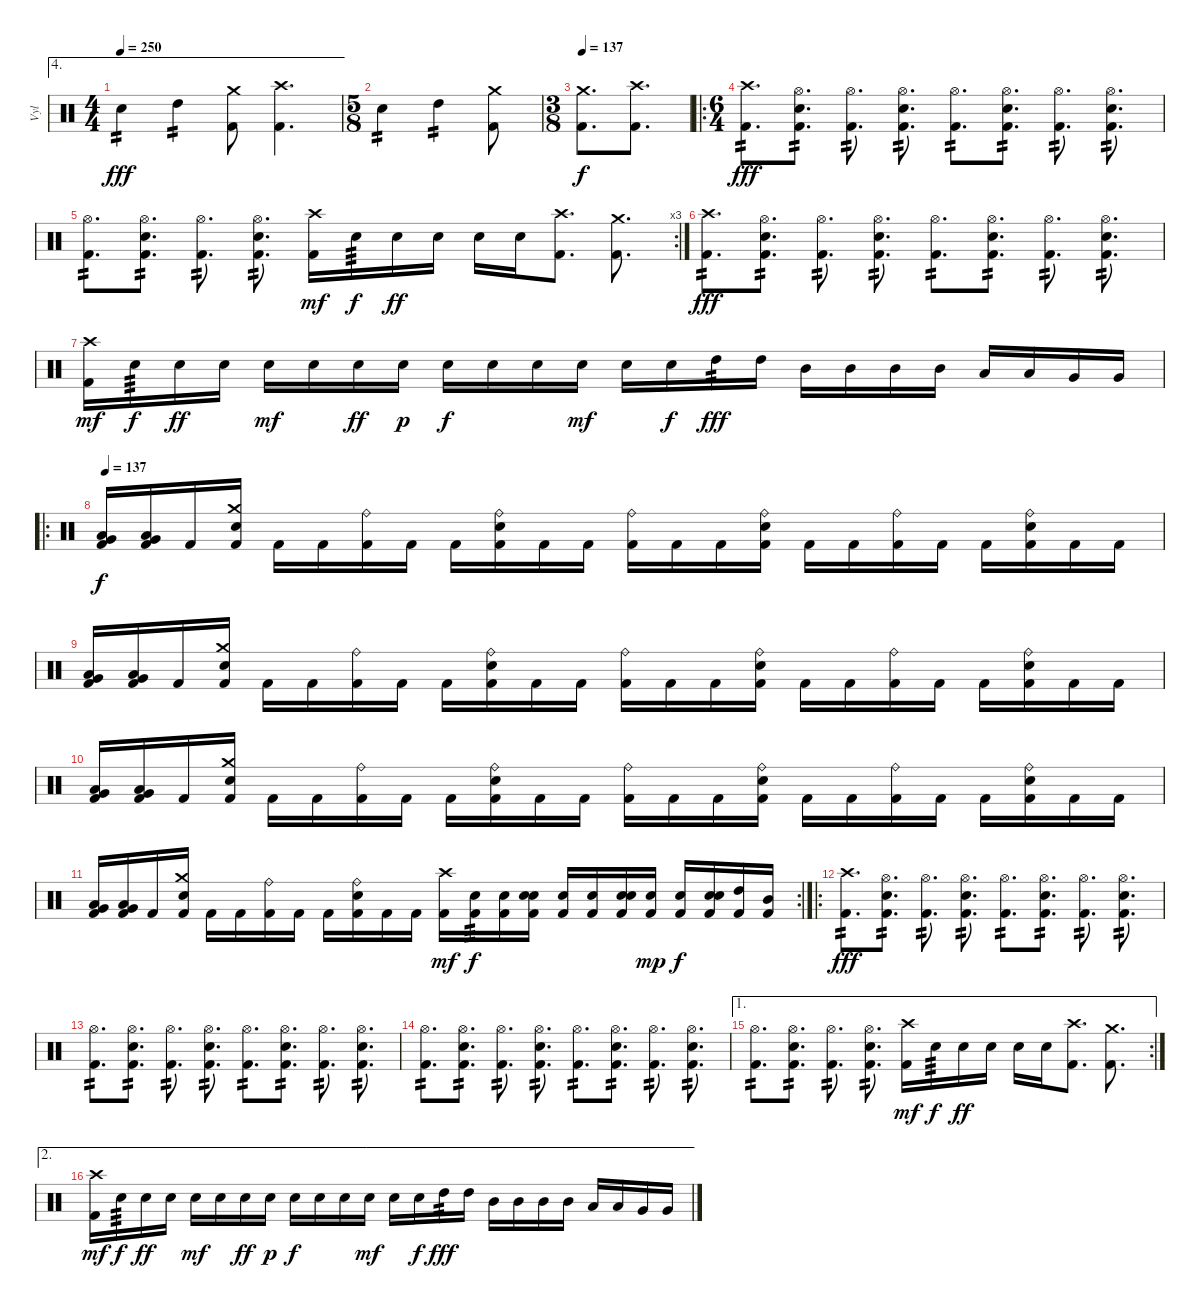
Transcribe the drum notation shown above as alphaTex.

\track ("Vyl" "Vyl") {instrument percussion}
\staff {score}
\articulation defaults
\ae 4
\ts (4 4)
\tempo 250
\clef neutral
\ks c "Snare (hit) 2".4{tp 2 dy fff} "High Tom (hit)".4{tp 2}
("Crash medium (hit)" "Kick (hit) 2").8 ("Crash high (hit)" "Kick (hit) 2").4{d} |
\ts (5 8)
"Snare (hit) 2".4{tp 2} "High Tom (hit)".4{tp 2} ("Crash medium (hit)" "Kick (hit) 2").8 |
\ts (3 8)
\tempo 137
("Crash medium (hit)" "Kick (hit) 2").8{d dy f} ("Crash high (hit)" "Kick (hit) 2").8{d} |
\ro
\ts (6 4)
("Crash high (hit)" "Kick (hit) 2").8{d tp 2 dy fff} ("Hi-Hat (open)" "Snare (hit) 2" "Kick (hit) 2").8{d tp 2} ("Hi-Hat (open)" "Kick (hit) 2").8{d tp 2} ("Hi-Hat (open)" "Snare (hit) 2" "Kick (hit) 2").8{d tp 2} ("Hi-Hat (open)" "Kick (hit) 2").8{d tp 2} ("Hi-Hat (open)" "Snare (hit) 2" "Kick (hit) 2").8{d tp 2} ("Hi-Hat (open)" "Kick (hit) 2").8{d tp 2} ("Hi-Hat (open)" "Snare (hit) 2" "Kick (hit) 2").8{d tp 2} |
\rc 3
("Hi-Hat (open)" "Kick (hit) 2").8{d tp 2} ("Hi-Hat (open)" "Snare (hit) 2" "Kick (hit) 2").8{d tp 2} ("Hi-Hat (open)" "Kick (hit) 2").8{d tp 2} ("Hi-Hat (open)" "Snare (hit) 2" "Kick (hit) 2").8{d tp 2} ("Crash high (hit)" "Kick (hit) 2").16{dy mf} "Snare (hit) 2".16{tp 3 dy f} "Snare (hit) 2".16{dy ff} "Snare (hit) 2".16 "Snare (hit) 2".16 "Snare (hit) 2".16 ("Crash high (hit)" "Kick (hit) 2").8{d} ("Crash medium (hit)" "Kick (hit) 2").8{d} |
("Crash high (hit)" "Kick (hit) 2").8{d tp 2 dy fff} ("Hi-Hat (open)" "Snare (hit) 2" "Kick (hit) 2").8{d tp 2} ("Hi-Hat (open)" "Kick (hit) 2").8{d tp 2} ("Hi-Hat (open)" "Snare (hit) 2" "Kick (hit) 2").8{d tp 2} ("Hi-Hat (open)" "Kick (hit) 2").8{d tp 2} ("Hi-Hat (open)" "Snare (hit) 2" "Kick (hit) 2").8{d tp 2} ("Hi-Hat (open)" "Kick (hit) 2").8{d tp 2} ("Hi-Hat (open)" "Snare (hit) 2" "Kick (hit) 2").8{d tp 2} |
("Crash high (hit)" "Kick (hit) 2").16{dy mf} "Snare (hit) 2".16{tp 3 dy f} "Snare (hit) 2".16{dy ff} "Snare (hit) 2".16 "Snare (hit) 2".16{dy mf} "Snare (hit) 2".16 "Snare (hit) 2".16{dy ff} "Snare (hit) 2".16{dy p} "Snare (hit) 2".16{dy f} "Snare (hit) 2".16 "Snare (hit) 2".16 "Snare (hit) 2".16{dy mf} "Snare (hit) 2".16 "Snare (hit) 2".16{dy f} "High Tom (hit)".16{tp 2 dy fff} "High Tom (hit)".16 "Mid Tom (hit)".16 "Mid Tom (hit)".16 "Mid Tom (hit)".16 "Mid Tom (hit)".16 "Low Tom (hit)".16 "Low Tom (hit)".16 "Very Low Tom (hit)".16 "Very Low Tom (hit)".16 |
\ro
\tempo 137
("Low Tom (hit)" "Very Low Tom (hit)" "Kick (hit) 2").16{dy f} ("Low Tom (hit)" "Very Low Tom (hit)" "Kick (hit) 2").16 "Kick (hit) 2".16 ("Crash medium (hit)" "Snare (hit) 2" "Kick (hit) 2").16 "Kick (hit) 2".16 "Kick (hit) 2".16 ("Ride (bell)" "Kick (hit) 2").16 "Kick (hit) 2".16 "Kick (hit) 2".16 ("Ride (bell)" "Snare (hit) 2" "Kick (hit) 2").16 "Kick (hit) 2".16 "Kick (hit) 2".16 ("Ride (bell)" "Kick (hit) 2").16 "Kick (hit) 2".16 "Kick (hit) 2".16 ("Ride (bell)" "Snare (hit) 2" "Kick (hit) 2").16 "Kick (hit) 2".16 "Kick (hit) 2".16 ("Ride (bell)" "Kick (hit) 2").16 "Kick (hit) 2".16 "Kick (hit) 2".16 ("Ride (bell)" "Snare (hit) 2" "Kick (hit) 2").16 "Kick (hit) 2".16 "Kick (hit) 2".16 |
("Low Tom (hit)" "Very Low Tom (hit)" "Kick (hit) 2").16 ("Low Tom (hit)" "Very Low Tom (hit)" "Kick (hit) 2").16 "Kick (hit) 2".16 ("Crash medium (hit)" "Snare (hit) 2" "Kick (hit) 2").16 "Kick (hit) 2".16 "Kick (hit) 2".16 ("Ride (bell)" "Kick (hit) 2").16 "Kick (hit) 2".16 "Kick (hit) 2".16 ("Ride (bell)" "Snare (hit) 2" "Kick (hit) 2").16 "Kick (hit) 2".16 "Kick (hit) 2".16 ("Ride (bell)" "Kick (hit) 2").16 "Kick (hit) 2".16 "Kick (hit) 2".16 ("Ride (bell)" "Snare (hit) 2" "Kick (hit) 2").16 "Kick (hit) 2".16 "Kick (hit) 2".16 ("Ride (bell)" "Kick (hit) 2").16 "Kick (hit) 2".16 "Kick (hit) 2".16 ("Ride (bell)" "Snare (hit) 2" "Kick (hit) 2").16 "Kick (hit) 2".16 "Kick (hit) 2".16 |
("Low Tom (hit)" "Very Low Tom (hit)" "Kick (hit) 2").16 ("Low Tom (hit)" "Very Low Tom (hit)" "Kick (hit) 2").16 "Kick (hit) 2".16 ("Crash medium (hit)" "Snare (hit) 2" "Kick (hit) 2").16 "Kick (hit) 2".16 "Kick (hit) 2".16 ("Ride (bell)" "Kick (hit) 2").16 "Kick (hit) 2".16 "Kick (hit) 2".16 ("Ride (bell)" "Snare (hit) 2" "Kick (hit) 2").16 "Kick (hit) 2".16 "Kick (hit) 2".16 ("Ride (bell)" "Kick (hit) 2").16 "Kick (hit) 2".16 "Kick (hit) 2".16 ("Ride (bell)" "Snare (hit) 2" "Kick (hit) 2").16 "Kick (hit) 2".16 "Kick (hit) 2".16 ("Ride (bell)" "Kick (hit) 2").16 "Kick (hit) 2".16 "Kick (hit) 2".16 ("Ride (bell)" "Snare (hit) 2" "Kick (hit) 2").16 "Kick (hit) 2".16 "Kick (hit) 2".16 |
\rc 2
("Low Tom (hit)" "Very Low Tom (hit)" "Kick (hit) 2").16 ("Low Tom (hit)" "Very Low Tom (hit)" "Kick (hit) 2").16 "Kick (hit) 2".16 ("Crash medium (hit)" "Snare (hit) 2" "Kick (hit) 2").16 "Kick (hit) 2".16 "Kick (hit) 2".16 ("Ride (bell)" "Kick (hit) 2").16 "Kick (hit) 2".16 "Kick (hit) 2".16 ("Ride (bell)" "Snare (hit) 2" "Kick (hit) 2").16 "Kick (hit) 2".16 "Kick (hit) 2".16 ("Crash high (hit)" "Kick (hit) 2").16{dy mf} ("Snare (hit) 2" "Kick (hit) 2").16{tp 3 dy f} ("Snare (hit) 2" "Kick (hit) 2").16 ("Snare (hit)" "Snare (hit) 2" "Kick (hit) 2").16 ("Snare (hit) 2" "Kick (hit) 2").16 ("Snare (hit) 2" "Kick (hit) 2").16 ("Snare (hit)" "Snare (hit) 2" "Kick (hit) 2").16 ("Snare (hit) 2" "Kick (hit) 2").16{dy mp} ("Snare (hit) 2" "Kick (hit) 2").16{dy f} ("Snare (hit)" "Snare (hit) 2" "Kick (hit) 2").16 ("High Tom (hit)" "Kick (hit) 2").16 ("Mid Tom (hit)" "Kick (hit) 2").16 |
\ro
("Crash high (hit)" "Kick (hit) 2").8{d tp 2 dy fff} ("Hi-Hat (open)" "Snare (hit) 2" "Kick (hit) 2").8{d tp 2} ("Hi-Hat (open)" "Kick (hit) 2").8{d tp 2} ("Hi-Hat (open)" "Snare (hit) 2" "Kick (hit) 2").8{d tp 2} ("Hi-Hat (open)" "Kick (hit) 2").8{d tp 2} ("Hi-Hat (open)" "Snare (hit) 2" "Kick (hit) 2").8{d tp 2} ("Hi-Hat (open)" "Kick (hit) 2").8{d tp 2} ("Hi-Hat (open)" "Snare (hit) 2" "Kick (hit) 2").8{d tp 2} |
("Hi-Hat (open)" "Kick (hit) 2").8{d tp 2} ("Hi-Hat (open)" "Snare (hit) 2" "Kick (hit) 2").8{d tp 2} ("Hi-Hat (open)" "Kick (hit) 2").8{d tp 2} ("Hi-Hat (open)" "Snare (hit) 2" "Kick (hit) 2").8{d tp 2} ("Hi-Hat (open)" "Kick (hit) 2").8{d tp 2} ("Hi-Hat (open)" "Snare (hit) 2" "Kick (hit) 2").8{d tp 2} ("Hi-Hat (open)" "Kick (hit) 2").8{d tp 2} ("Hi-Hat (open)" "Snare (hit) 2" "Kick (hit) 2").8{d tp 2} |
("Hi-Hat (open)" "Kick (hit) 2").8{d tp 2} ("Hi-Hat (open)" "Snare (hit) 2" "Kick (hit) 2").8{d tp 2} ("Hi-Hat (open)" "Kick (hit) 2").8{d tp 2} ("Hi-Hat (open)" "Snare (hit) 2" "Kick (hit) 2").8{d tp 2} ("Hi-Hat (open)" "Kick (hit) 2").8{d tp 2} ("Hi-Hat (open)" "Snare (hit) 2" "Kick (hit) 2").8{d tp 2} ("Hi-Hat (open)" "Kick (hit) 2").8{d tp 2} ("Hi-Hat (open)" "Snare (hit) 2" "Kick (hit) 2").8{d tp 2} |
\ae 1
\rc 2
("Hi-Hat (open)" "Kick (hit) 2").8{d tp 2} ("Hi-Hat (open)" "Snare (hit) 2" "Kick (hit) 2").8{d tp 2} ("Hi-Hat (open)" "Kick (hit) 2").8{d tp 2} ("Hi-Hat (open)" "Snare (hit) 2" "Kick (hit) 2").8{d tp 2} ("Crash high (hit)" "Kick (hit) 2").16{dy mf} "Snare (hit) 2".16{tp 3 dy f} "Snare (hit) 2".16{dy ff} "Snare (hit) 2".16 "Snare (hit) 2".16 "Snare (hit) 2".16 ("Crash high (hit)" "Kick (hit) 2").8{d} ("Crash medium (hit)" "Kick (hit) 2").8{d} |
\ae 2
("Crash high (hit)" "Kick (hit) 2").16{dy mf} "Snare (hit) 2".16{tp 3 dy f} "Snare (hit) 2".16{dy ff} "Snare (hit) 2".16 "Snare (hit) 2".16{dy mf} "Snare (hit) 2".16 "Snare (hit) 2".16{dy ff} "Snare (hit) 2".16{dy p} "Snare (hit) 2".16{dy f} "Snare (hit) 2".16 "Snare (hit) 2".16 "Snare (hit) 2".16{dy mf} "Snare (hit) 2".16 "Snare (hit) 2".16{dy f} "High Tom (hit)".16{tp 2 dy fff} "High Tom (hit)".16 "Mid Tom (hit)".16 "Mid Tom (hit)".16 "Mid Tom (hit)".16 "Mid Tom (hit)".16 "Low Tom (hit)".16 "Low Tom (hit)".16 "Very Low Tom (hit)".16 "Very Low Tom (hit)".16
